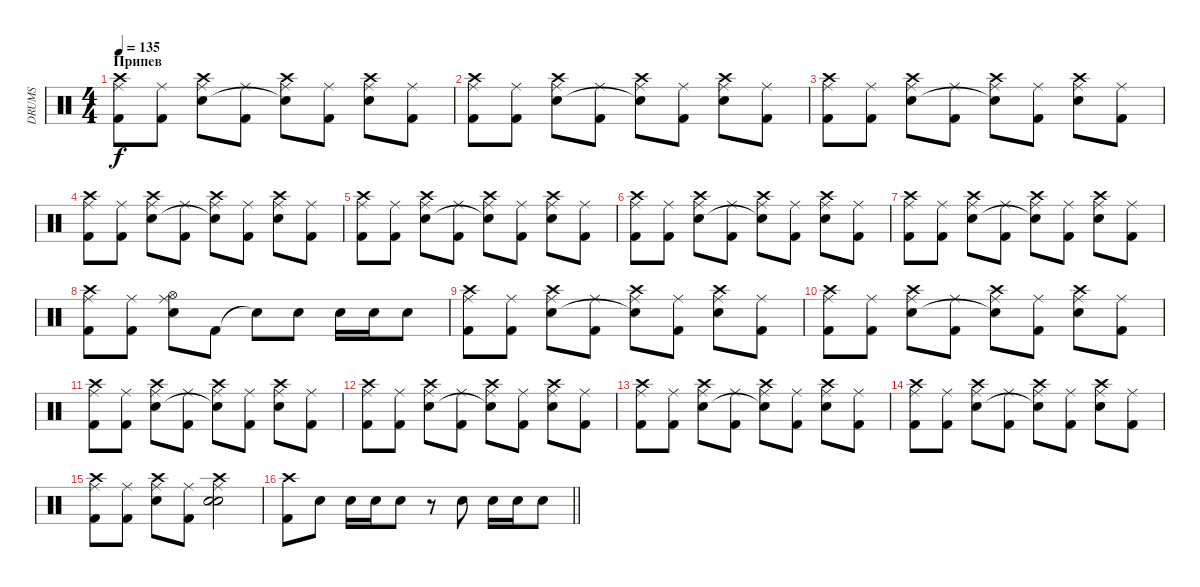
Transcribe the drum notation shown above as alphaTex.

\track ("DRUMS" "DRUMS") {instrument percussion}
\staff {score}
\articulation defaults
\ts (4 4)
\section ("" "Припев")
\tempo 135
\clef neutral
\ks c
("Crash high (hit)" "Ride (middle)" "Kick (hit) 2").8{dy f} ("Ride (middle)" "Kick (hit) 2").8 ("Crash high (hit)" "Ride (middle)" "Snare (hit) 2").8 ("Ride (middle)" "Kick (hit) 2").8 ("Crash high (hit)" "Ride (middle)" "Snare (hit)"{t}).8 ("Ride (middle)" "Kick (hit) 2").8 ("Crash high (hit)" "Ride (middle)" "Snare (hit) 2").8 ("Ride (middle)" "Kick (hit) 2").8 |
("Crash high (hit)" "Ride (middle)" "Kick (hit) 2").8 ("Ride (middle)" "Kick (hit) 2").8 ("Crash high (hit)" "Ride (middle)" "Snare (hit) 2").8 ("Ride (middle)" "Kick (hit) 2").8 ("Crash high (hit)" "Ride (middle)" "Snare (hit)"{t}).8 ("Ride (middle)" "Kick (hit) 2").8 ("Crash high (hit)" "Ride (middle)" "Snare (hit) 2").8 ("Ride (middle)" "Kick (hit) 2").8 |
("Crash high (hit)" "Ride (middle)" "Kick (hit) 2").8 ("Ride (middle)" "Kick (hit) 2").8 ("Crash high (hit)" "Ride (middle)" "Snare (hit) 2").8 ("Ride (middle)" "Kick (hit) 2").8 ("Crash high (hit)" "Ride (middle)" "Snare (hit)"{t}).8 ("Ride (middle)" "Kick (hit) 2").8 ("Crash high (hit)" "Ride (middle)" "Snare (hit) 2").8 ("Ride (middle)" "Kick (hit) 2").8 |
("Crash high (hit)" "Ride (middle)" "Kick (hit) 2").8 ("Ride (middle)" "Kick (hit) 2").8 ("Crash high (hit)" "Ride (middle)" "Snare (hit) 2").8 ("Ride (middle)" "Kick (hit) 2").8 ("Crash high (hit)" "Ride (middle)" "Snare (hit)"{t}).8 ("Ride (middle)" "Kick (hit) 2").8 ("Crash high (hit)" "Ride (middle)" "Snare (hit) 2").8 ("Ride (middle)" "Kick (hit) 2").8 |
("Crash high (hit)" "Ride (middle)" "Kick (hit) 2").8 ("Ride (middle)" "Kick (hit) 2").8 ("Crash high (hit)" "Ride (middle)" "Snare (hit) 2").8 ("Ride (middle)" "Kick (hit) 2").8 ("Crash high (hit)" "Ride (middle)" "Snare (hit)"{t}).8 ("Ride (middle)" "Kick (hit) 2").8 ("Crash high (hit)" "Ride (middle)" "Snare (hit) 2").8 ("Ride (middle)" "Kick (hit) 2").8 |
("Crash high (hit)" "Ride (middle)" "Kick (hit) 2").8 ("Ride (middle)" "Kick (hit) 2").8 ("Crash high (hit)" "Ride (middle)" "Snare (hit) 2").8 ("Ride (middle)" "Kick (hit) 2").8 ("Crash high (hit)" "Ride (middle)" "Snare (hit)"{t}).8 ("Ride (middle)" "Kick (hit) 2").8 ("Crash high (hit)" "Ride (middle)" "Snare (hit) 2").8 ("Ride (middle)" "Kick (hit) 2").8 |
("Crash high (hit)" "Ride (middle)" "Kick (hit) 2").8 ("Ride (middle)" "Kick (hit) 2").8 ("Crash high (hit)" "Ride (middle)" "Snare (hit) 2").8 ("Ride (middle)" "Kick (hit) 2").8 ("Crash high (hit)" "Ride (middle)" "Snare (hit)"{t}).8 ("Ride (middle)" "Kick (hit) 2").8 ("Crash high (hit)" "Ride (middle)" "Snare (hit) 2").8 ("Ride (middle)" "Kick (hit) 2").8 |
("Crash high (hit)" "Ride (middle)" "Kick (hit) 2").8 ("Ride (middle)" "Kick (hit) 2").8 ("Hi-Hat (open)" "Ride (middle)" "Snare (hit) 2").8 "Kick (hit) 2".8 "Snare (hit)"{t}.8 "Snare (hit) 2".8 "Snare (hit) 2".16 "Snare (hit) 2".16 "Snare (hit) 2".8 |
("Crash high (hit)" "Ride (middle)" "Kick (hit) 2").8 ("Ride (middle)" "Kick (hit) 2").8 ("Crash high (hit)" "Ride (middle)" "Snare (hit) 2").8 ("Ride (middle)" "Kick (hit) 2").8 ("Crash high (hit)" "Ride (middle)" "Snare (hit)"{t}).8 ("Ride (middle)" "Kick (hit) 2").8 ("Crash high (hit)" "Ride (middle)" "Snare (hit) 2").8 ("Ride (middle)" "Kick (hit) 2").8 |
("Crash high (hit)" "Ride (middle)" "Kick (hit) 2").8 ("Ride (middle)" "Kick (hit) 2").8 ("Crash high (hit)" "Ride (middle)" "Snare (hit) 2").8 ("Ride (middle)" "Kick (hit) 2").8 ("Crash high (hit)" "Ride (middle)" "Snare (hit)"{t}).8 ("Ride (middle)" "Kick (hit) 2").8 ("Crash high (hit)" "Ride (middle)" "Snare (hit) 2").8 ("Ride (middle)" "Kick (hit) 2").8 |
("Crash high (hit)" "Ride (middle)" "Kick (hit) 2").8 ("Ride (middle)" "Kick (hit) 2").8 ("Crash high (hit)" "Ride (middle)" "Snare (hit) 2").8 ("Ride (middle)" "Kick (hit) 2").8 ("Crash high (hit)" "Ride (middle)" "Snare (hit)"{t}).8 ("Ride (middle)" "Kick (hit) 2").8 ("Crash high (hit)" "Ride (middle)" "Snare (hit) 2").8 ("Ride (middle)" "Kick (hit) 2").8 |
("Crash high (hit)" "Ride (middle)" "Kick (hit) 2").8 ("Ride (middle)" "Kick (hit) 2").8 ("Crash high (hit)" "Ride (middle)" "Snare (hit) 2").8 ("Ride (middle)" "Kick (hit) 2").8 ("Crash high (hit)" "Ride (middle)" "Snare (hit)"{t}).8 ("Ride (middle)" "Kick (hit) 2").8 ("Crash high (hit)" "Ride (middle)" "Snare (hit) 2").8 ("Ride (middle)" "Kick (hit) 2").8 |
("Crash high (hit)" "Ride (middle)" "Kick (hit) 2").8 ("Ride (middle)" "Kick (hit) 2").8 ("Crash high (hit)" "Ride (middle)" "Snare (hit) 2").8 ("Ride (middle)" "Kick (hit) 2").8 ("Crash high (hit)" "Ride (middle)" "Snare (hit)"{t}).8 ("Ride (middle)" "Kick (hit) 2").8 ("Crash high (hit)" "Ride (middle)" "Snare (hit) 2").8 ("Ride (middle)" "Kick (hit) 2").8 |
("Crash high (hit)" "Ride (middle)" "Kick (hit) 2").8 ("Ride (middle)" "Kick (hit) 2").8 ("Crash high (hit)" "Ride (middle)" "Snare (hit) 2").8 ("Ride (middle)" "Kick (hit) 2").8 ("Crash high (hit)" "Ride (middle)" "Snare (hit)"{t}).8 ("Ride (middle)" "Kick (hit) 2").8 ("Crash high (hit)" "Ride (middle)" "Snare (hit) 2").8 ("Ride (middle)" "Kick (hit) 2").8 |
("Crash high (hit)" "Ride (middle)" "Kick (hit) 2").8 ("Ride (middle)" "Kick (hit) 2").8 ("Crash high (hit)" "Ride (middle)" "Snare (hit) 2").8 ("Ride (middle)" "Kick (hit) 2").8 ("Crash high (hit)" "Ride (middle)" "Snare (hit) 2" "Snare (hit)").2 |
\barLineRight lightlight
("Crash high (hit)" "Kick (hit) 2").8 "Snare (hit) 2".8 "Snare (hit) 2".16 "Snare (hit) 2".16 "Snare (hit) 2".8 r.8 "Snare (hit) 2".8 "Snare (hit) 2".16 "Snare (hit) 2".16 "Snare (hit) 2".8
